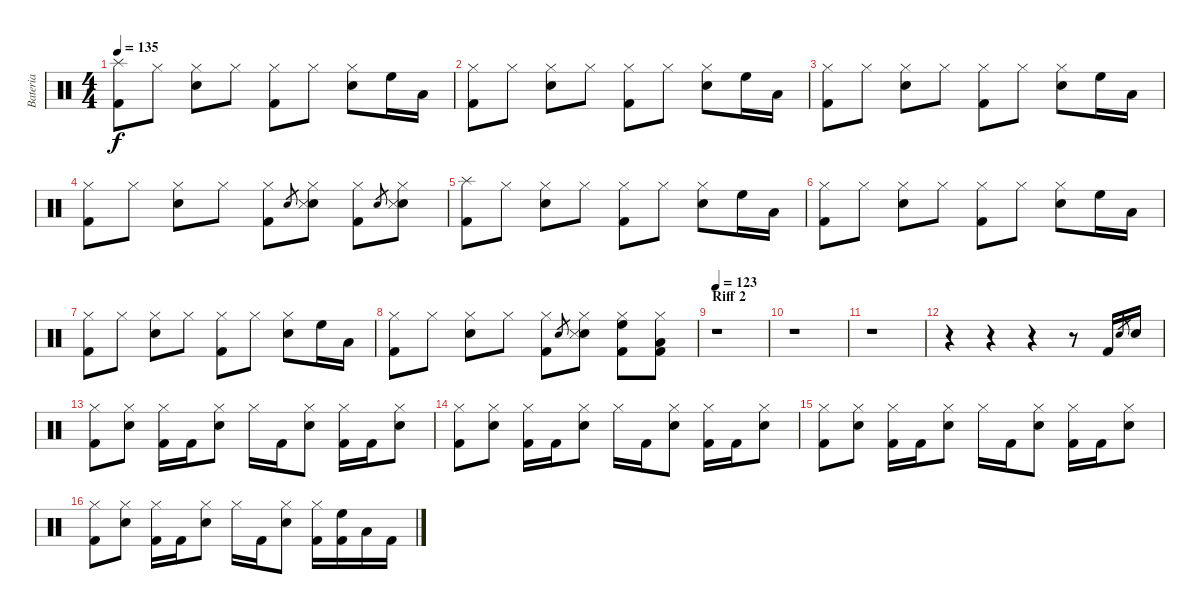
\track ("Bateria" "Bateria") {instrument percussion}
\staff {score}
\articulation defaults
\ts (4 4)
\tempo 135
\clef neutral
\ks c
("Splash (hit)" "Kick (hit) 2").8{dy f} "Hi-Hat (closed)".8 ("Hi-Hat (closed)" "Snare (hit) 2").8 "Hi-Hat (closed)".8 ("Hi-Hat (closed)" "Kick (hit) 2").8 "Hi-Hat (closed)".8 ("Hi-Hat (closed)" "Snare (hit) 2").8 "High Floor Tom (hit)".16 "Low Tom (hit)".16 |
("Hi-Hat (closed)" "Kick (hit) 2").8 "Hi-Hat (closed)".8 ("Hi-Hat (closed)" "Snare (hit) 2").8 "Hi-Hat (closed)".8 ("Hi-Hat (closed)" "Kick (hit) 2").8 "Hi-Hat (closed)".8 ("Hi-Hat (closed)" "Snare (hit) 2").8 "High Floor Tom (hit)".16 "Low Tom (hit)".16 |
("Hi-Hat (closed)" "Kick (hit) 2").8 "Hi-Hat (closed)".8 ("Hi-Hat (closed)" "Snare (hit) 2").8 "Hi-Hat (closed)".8 ("Hi-Hat (closed)" "Kick (hit) 2").8 "Hi-Hat (closed)".8 ("Hi-Hat (closed)" "Snare (hit) 2").8 "High Floor Tom (hit)".16 "Low Tom (hit)".16 |
("Hi-Hat (closed)" "Kick (hit) 2").8 "Hi-Hat (closed)".8 ("Hi-Hat (closed)" "Snare (hit) 2").8 "Hi-Hat (closed)".8 ("Hi-Hat (closed)" "Kick (hit) 2").8 "Snare (hit) 2".8{gr} ("Hi-Hat (closed)" "Snare (hit) 2" "Snare (side stick) 3").8 ("Hi-Hat (closed)" "Kick (hit) 2").8 "Snare (hit) 2".8{gr} ("Hi-Hat (closed)" "Snare (hit) 2" "Snare (side stick) 3").8 |
("Splash (hit)" "Kick (hit) 2").8 "Hi-Hat (closed)".8 ("Hi-Hat (closed)" "Snare (hit) 2").8 "Hi-Hat (closed)".8 ("Hi-Hat (closed)" "Kick (hit) 2").8 "Hi-Hat (closed)".8 ("Hi-Hat (closed)" "Snare (hit) 2").8 "High Floor Tom (hit)".16 "Low Tom (hit)".16 |
("Hi-Hat (closed)" "Kick (hit) 2").8 "Hi-Hat (closed)".8 ("Hi-Hat (closed)" "Snare (hit) 2").8 "Hi-Hat (closed)".8 ("Hi-Hat (closed)" "Kick (hit) 2").8 "Hi-Hat (closed)".8 ("Hi-Hat (closed)" "Snare (hit) 2").8 "High Floor Tom (hit)".16 "Low Tom (hit)".16 |
("Hi-Hat (closed)" "Kick (hit) 2").8 "Hi-Hat (closed)".8 ("Hi-Hat (closed)" "Snare (hit) 2").8 "Hi-Hat (closed)".8 ("Hi-Hat (closed)" "Kick (hit) 2").8 "Hi-Hat (closed)".8 ("Hi-Hat (closed)" "Snare (hit) 2").8 "High Floor Tom (hit)".16 "Low Tom (hit)".16 |
("Hi-Hat (closed)" "Kick (hit) 2").8 "Hi-Hat (closed)".8 ("Hi-Hat (closed)" "Snare (hit) 2").8 "Hi-Hat (closed)".8 ("Hi-Hat (closed)" "Kick (hit) 2").8 "Snare (hit) 2".8{gr} ("Hi-Hat (closed)" "Snare (hit) 2" "Snare (side stick) 3").8 ("Hi-Hat (closed)" "High Floor Tom (hit)" "Kick (hit) 2").8 ("Hi-Hat (closed)" "Low Tom (hit)" "Kick (hit) 2").8 |
\section ("" "Riff 2")
\tempo 123
r.1 |
r.1 |
r.1 |
r.4 r.4 r.4 r.8 "Kick (hit) 2".16 "Snare (hit) 2".8{gr} "Snare (hit) 2".16 |
("Hi-Hat (closed)" "Kick (hit) 2").8 ("Hi-Hat (closed)" "Snare (hit) 2").8 ("Hi-Hat (closed)" "Kick (hit) 2").16 "Kick (hit) 2".16 ("Hi-Hat (closed)" "Snare (hit) 2").8 "Hi-Hat (closed)".16 "Kick (hit) 2".16 ("Hi-Hat (closed)" "Snare (hit) 2").8 ("Hi-Hat (closed)" "Kick (hit) 2").16 "Kick (hit) 2".16 ("Hi-Hat (closed)" "Snare (hit) 2").8 |
("Hi-Hat (closed)" "Kick (hit) 2").8 ("Hi-Hat (closed)" "Snare (hit) 2").8 ("Hi-Hat (closed)" "Kick (hit) 2").16 "Kick (hit) 2".16 ("Hi-Hat (closed)" "Snare (hit) 2").8 "Hi-Hat (closed)".16 "Kick (hit) 2".16 ("Hi-Hat (closed)" "Snare (hit) 2").8 ("Hi-Hat (closed)" "Kick (hit) 2").16 "Kick (hit) 2".16 ("Hi-Hat (closed)" "Snare (hit) 2").8 |
("Hi-Hat (closed)" "Kick (hit) 2").8 ("Hi-Hat (closed)" "Snare (hit) 2").8 ("Hi-Hat (closed)" "Kick (hit) 2").16 "Kick (hit) 2".16 ("Hi-Hat (closed)" "Snare (hit) 2").8 "Hi-Hat (closed)".16 "Kick (hit) 2".16 ("Hi-Hat (closed)" "Snare (hit) 2").8 ("Hi-Hat (closed)" "Kick (hit) 2").16 "Kick (hit) 2".16 ("Hi-Hat (closed)" "Snare (hit) 2").8 |
("Hi-Hat (closed)" "Kick (hit) 2").8 ("Hi-Hat (closed)" "Snare (hit) 2").8 ("Hi-Hat (closed)" "Kick (hit) 2").16 "Kick (hit) 2".16 ("Hi-Hat (closed)" "Snare (hit) 2").8 "Hi-Hat (closed)".16 "Kick (hit) 2".16 ("Hi-Hat (closed)" "Snare (hit) 2").8 ("Hi-Hat (closed)" "Kick (hit) 2").16 ("High Floor Tom (hit)" "Kick (hit) 2").16 "Low Tom (hit)".16 "Kick (hit) 2".16
